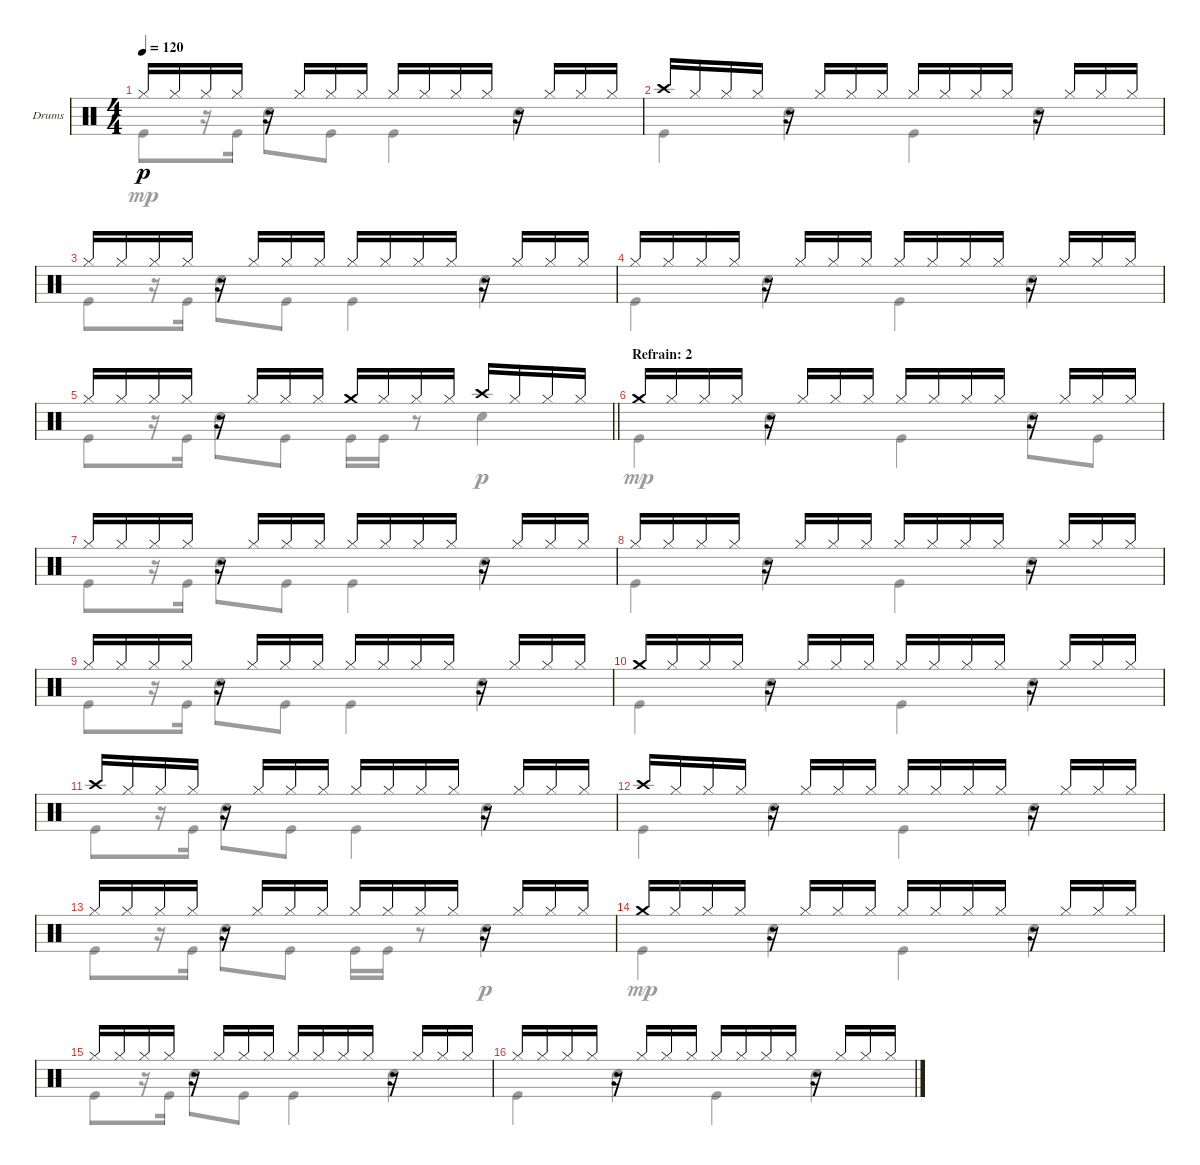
\bracketExtendMode groupsimilarinstruments
\firstSystemTrackNameOrientation horizontal
\otherSystemsTrackNameOrientation horizontal
\track ("Drumkit" "Drums") {instrument percussion}
\staff {score}
\articulation defaults
\voice
\ts (4 4)
\tempo 120
\clef neutral
\ks c "Hi-Hat (closed)".16{dy p} "Hi-Hat (closed)".16 "Hi-Hat (closed)".16 "Hi-Hat (closed)".16
r.16 "Hi-Hat (closed)".16 "Hi-Hat (closed)".16 "Hi-Hat (closed)".16 "Hi-Hat (closed)".16 "Hi-Hat (closed)".16 "Hi-Hat (closed)".16 "Hi-Hat (closed)".16 r.16 "Hi-Hat (closed)".16 "Hi-Hat (closed)".16 "Hi-Hat (closed)".16 |
"Crash high (hit)".16 "Hi-Hat (closed)".16 "Hi-Hat (closed)".16 "Hi-Hat (closed)".16 r.16 "Hi-Hat (closed)".16 "Hi-Hat (closed)".16 "Hi-Hat (closed)".16 "Hi-Hat (closed)".16 "Hi-Hat (closed)".16 "Hi-Hat (closed)".16 "Hi-Hat (closed)".16 r.16 "Hi-Hat (closed)".16 "Hi-Hat (closed)".16 "Hi-Hat (closed)".16 |
"Hi-Hat (closed)".16 "Hi-Hat (closed)".16 "Hi-Hat (closed)".16 "Hi-Hat (closed)".16 r.16 "Hi-Hat (closed)".16 "Hi-Hat (closed)".16 "Hi-Hat (closed)".16 "Hi-Hat (closed)".16 "Hi-Hat (closed)".16 "Hi-Hat (closed)".16 "Hi-Hat (closed)".16 r.16 "Hi-Hat (closed)".16 "Hi-Hat (closed)".16 "Hi-Hat (closed)".16 |
"Hi-Hat (closed)".16 "Hi-Hat (closed)".16 "Hi-Hat (closed)".16 "Hi-Hat (closed)".16 r.16 "Hi-Hat (closed)".16 "Hi-Hat (closed)".16 "Hi-Hat (closed)".16 "Hi-Hat (closed)".16 "Hi-Hat (closed)".16 "Hi-Hat (closed)".16 "Hi-Hat (closed)".16 r.16 "Hi-Hat (closed)".16 "Hi-Hat (closed)".16 "Hi-Hat (closed)".16 |
\barLineRight lightlight "Hi-Hat (closed)".16 "Hi-Hat (closed)".16 "Hi-Hat (closed)".16 "Hi-Hat (closed)".16
r.16 "Hi-Hat (closed)".16 "Hi-Hat (closed)".16 "Hi-Hat (closed)".16 "Crash medium (hit)".16 "Hi-Hat (closed)".16 "Hi-Hat (closed)".16 "Hi-Hat (closed)".16 "Crash high (hit)".16 "Hi-Hat (closed)".16 "Hi-Hat (closed)".16 "Hi-Hat (closed)".16 |
\section ("" "Refrain: 2")
"Crash medium (hit)".16 "Hi-Hat (closed)".16 "Hi-Hat (closed)".16 "Hi-Hat (closed)".16 r.16 "Hi-Hat (closed)".16 "Hi-Hat (closed)".16 "Hi-Hat (closed)".16 "Hi-Hat (closed)".16 "Hi-Hat (closed)".16 "Hi-Hat (closed)".16 "Hi-Hat (closed)".16 r.16 "Hi-Hat (closed)".16 "Hi-Hat (closed)".16 "Hi-Hat (closed)".16 |
"Hi-Hat (closed)".16 "Hi-Hat (closed)".16 "Hi-Hat (closed)".16 "Hi-Hat (closed)".16 r.16 "Hi-Hat (closed)".16 "Hi-Hat (closed)".16 "Hi-Hat (closed)".16 "Hi-Hat (closed)".16 "Hi-Hat (closed)".16 "Hi-Hat (closed)".16 "Hi-Hat (closed)".16 r.16 "Hi-Hat (closed)".16 "Hi-Hat (closed)".16 "Hi-Hat (closed)".16 |
"Hi-Hat (closed)".16 "Hi-Hat (closed)".16 "Hi-Hat (closed)".16 "Hi-Hat (closed)".16 r.16 "Hi-Hat (closed)".16 "Hi-Hat (closed)".16 "Hi-Hat (closed)".16 "Hi-Hat (closed)".16 "Hi-Hat (closed)".16 "Hi-Hat (closed)".16 "Hi-Hat (closed)".16 r.16 "Hi-Hat (closed)".16 "Hi-Hat (closed)".16 "Hi-Hat (closed)".16 |
"Hi-Hat (closed)".16 "Hi-Hat (closed)".16 "Hi-Hat (closed)".16 "Hi-Hat (closed)".16 r.16 "Hi-Hat (closed)".16 "Hi-Hat (closed)".16 "Hi-Hat (closed)".16 "Hi-Hat (closed)".16 "Hi-Hat (closed)".16 "Hi-Hat (closed)".16 "Hi-Hat (closed)".16 r.16 "Hi-Hat (closed)".16 "Hi-Hat (closed)".16 "Hi-Hat (closed)".16 |
"Crash medium (hit)".16 "Hi-Hat (closed)".16 "Hi-Hat (closed)".16 "Hi-Hat (closed)".16 r.16 "Hi-Hat (closed)".16 "Hi-Hat (closed)".16 "Hi-Hat (closed)".16 "Hi-Hat (closed)".16 "Hi-Hat (closed)".16 "Hi-Hat (closed)".16 "Hi-Hat (closed)".16 r.16 "Hi-Hat (closed)".16 "Hi-Hat (closed)".16 "Hi-Hat (closed)".16 |
"Crash high (hit)".16 "Hi-Hat (closed)".16 "Hi-Hat (closed)".16 "Hi-Hat (closed)".16 r.16 "Hi-Hat (closed)".16 "Hi-Hat (closed)".16 "Hi-Hat (closed)".16 "Hi-Hat (closed)".16 "Hi-Hat (closed)".16 "Hi-Hat (closed)".16 "Hi-Hat (closed)".16 r.16 "Hi-Hat (closed)".16 "Hi-Hat (closed)".16 "Hi-Hat (closed)".16 |
"Crash high (hit)".16 "Hi-Hat (closed)".16 "Hi-Hat (closed)".16 "Hi-Hat (closed)".16 r.16 "Hi-Hat (closed)".16 "Hi-Hat (closed)".16 "Hi-Hat (closed)".16 "Hi-Hat (closed)".16 "Hi-Hat (closed)".16 "Hi-Hat (closed)".16 "Hi-Hat (closed)".16 r.16 "Hi-Hat (closed)".16 "Hi-Hat (closed)".16 "Hi-Hat (closed)".16 |
"Hi-Hat (closed)".16 "Hi-Hat (closed)".16 "Hi-Hat (closed)".16 "Hi-Hat (closed)".16 r.16 "Hi-Hat (closed)".16 "Hi-Hat (closed)".16 "Hi-Hat (closed)".16 "Hi-Hat (closed)".16 "Hi-Hat (closed)".16 "Hi-Hat (closed)".16 "Hi-Hat (closed)".16 r.16 "Hi-Hat (closed)".16 "Hi-Hat (closed)".16 "Hi-Hat (closed)".16 |
"Crash medium (hit)".16 "Hi-Hat (closed)".16 "Hi-Hat (closed)".16 "Hi-Hat (closed)".16 r.16 "Hi-Hat (closed)".16 "Hi-Hat (closed)".16 "Hi-Hat (closed)".16 "Hi-Hat (closed)".16 "Hi-Hat (closed)".16 "Hi-Hat (closed)".16 "Hi-Hat (closed)".16 r.16 "Hi-Hat (closed)".16 "Hi-Hat (closed)".16 "Hi-Hat (closed)".16 |
"Hi-Hat (closed)".16 "Hi-Hat (closed)".16 "Hi-Hat (closed)".16 "Hi-Hat (closed)".16 r.16 "Hi-Hat (closed)".16 "Hi-Hat (closed)".16 "Hi-Hat (closed)".16 "Hi-Hat (closed)".16 "Hi-Hat (closed)".16 "Hi-Hat (closed)".16 "Hi-Hat (closed)".16 r.16 "Hi-Hat (closed)".16 "Hi-Hat (closed)".16 "Hi-Hat (closed)".16 |
"Hi-Hat (closed)".16 "Hi-Hat (closed)".16 "Hi-Hat (closed)".16 "Hi-Hat (closed)".16 r.16 "Hi-Hat (closed)".16 "Hi-Hat (closed)".16 "Hi-Hat (closed)".16 "Hi-Hat (closed)".16 "Hi-Hat (closed)".16 "Hi-Hat (closed)".16 "Hi-Hat (closed)".16 r.16 "Hi-Hat (closed)".16 "Hi-Hat (closed)".16 "Hi-Hat (closed)".16
\voice
\clef neutral
\ottava regular
\simile none
\ks c "Kick (hit)".8{dy mp}
r.16 "Kick (hit)".16 "Snare (hit) 2".8 "Kick (hit)".8 "Kick (hit)".4 "Snare (hit) 2".4 |
"Kick (hit)".4 "Snare (hit) 2".4 "Kick (hit)".4 "Snare (hit) 2".4 |
"Kick (hit)".8 r.16 "Kick (hit)".16 "Snare (hit) 2".8 "Kick (hit)".8 "Kick (hit)".4 "Snare (hit) 2".4 |
"Kick (hit)".4 "Snare (hit) 2".4 "Kick (hit)".4 "Snare (hit) 2".4 |
\barLineRight lightlight "Kick (hit)".8
r.16 "Kick (hit)".16 "Snare (hit) 2".8 "Kick (hit)".8 "Kick (hit)".16 "Kick (hit)".16 r.8 "Snare (hit) 2".4{dy p} |
"Kick (hit)".4{dy mp} "Snare (hit) 2".4 "Kick (hit)".4 "Snare (hit) 2".8 "Kick (hit)".8 |
"Kick (hit)".8 r.16 "Kick (hit)".16 "Snare (hit) 2".8 "Kick (hit)".8 "Kick (hit)".4 "Snare (hit) 2".4 |
"Kick (hit)".4 "Snare (hit) 2".4 "Kick (hit)".4 "Snare (hit) 2".4 |
"Kick (hit)".8 r.16 "Kick (hit)".16 "Snare (hit) 2".8 "Kick (hit)".8 "Kick (hit)".4 "Snare (hit) 2".4 |
"Kick (hit)".4 "Snare (hit) 2".4 "Kick (hit)".4 "Snare (hit) 2".4 |
"Kick (hit)".8 r.16 "Kick (hit)".16 "Snare (hit) 2".8 "Kick (hit)".8 "Kick (hit)".4 "Snare (hit) 2".4 |
"Kick (hit)".4 "Snare (hit) 2".4 "Kick (hit)".4 "Snare (hit) 2".4 |
"Kick (hit)".8 r.16 "Kick (hit)".16 "Snare (hit) 2".8 "Kick (hit)".8 "Kick (hit)".16 "Kick (hit)".16 r.8 "Snare (hit) 2".4{dy p} |
"Kick (hit)".4{dy mp} "Snare (hit) 2".4 "Kick (hit)".4 "Snare (hit) 2".4 |
"Kick (hit)".8 r.16 "Kick (hit)".16 "Snare (hit) 2".8 "Kick (hit)".8 "Kick (hit)".4 "Snare (hit) 2".4 |
"Kick (hit)".4 "Snare (hit) 2".4 "Kick (hit)".4 "Snare (hit) 2".4
